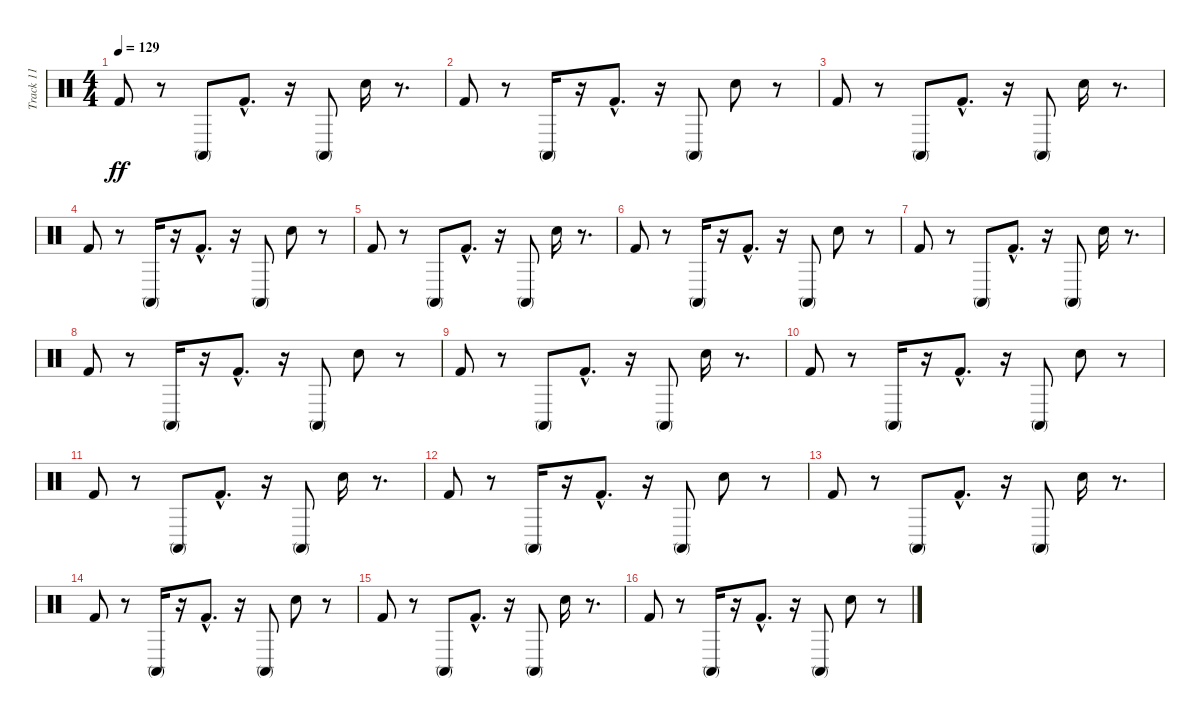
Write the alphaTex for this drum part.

\track ("Track 11" "Track 11") {instrument percussion}
\staff {score}
\articulation defaults
\ts (4 4)
\tempo 129
\clef neutral
\ks c "Kick (hit) 2".8{dy ff}
r.8 "Conga high (mute)".8 "Kick (hit) 2"{hac}.8{d} r.16 "Conga high (mute)".8 "Snare (hit) 2".16 r.8{d} |
"Kick (hit) 2".8 r.8 "Conga high (mute)".16 r.16 "Kick (hit) 2"{hac}.8{d} r.16 "Conga high (mute)".8 "Snare (hit) 2".8 r.8 |
"Kick (hit) 2".8 r.8 "Conga high (mute)".8 "Kick (hit) 2"{hac}.8{d} r.16 "Conga high (mute)".8 "Snare (hit) 2".16 r.8{d} |
"Kick (hit) 2".8 r.8 "Conga high (mute)".16 r.16 "Kick (hit) 2"{hac}.8{d} r.16 "Conga high (mute)".8 "Snare (hit) 2".8 r.8 |
"Kick (hit) 2".8 r.8 "Conga high (mute)".8 "Kick (hit) 2"{hac}.8{d} r.16 "Conga high (mute)".8 "Snare (hit) 2".16 r.8{d} |
"Kick (hit) 2".8 r.8 "Conga high (mute)".16 r.16 "Kick (hit) 2"{hac}.8{d} r.16 "Conga high (mute)".8 "Snare (hit) 2".8 r.8 |
"Kick (hit) 2".8 r.8 "Conga high (mute)".8 "Kick (hit) 2"{hac}.8{d} r.16 "Conga high (mute)".8 "Snare (hit) 2".16 r.8{d} |
"Kick (hit) 2".8 r.8 "Conga high (mute)".16 r.16 "Kick (hit) 2"{hac}.8{d} r.16 "Conga high (mute)".8 "Snare (hit) 2".8 r.8 |
"Kick (hit) 2".8 r.8 "Conga high (mute)".8 "Kick (hit) 2"{hac}.8{d} r.16 "Conga high (mute)".8 "Snare (hit) 2".16 r.8{d} |
"Kick (hit) 2".8 r.8 "Conga high (mute)".16 r.16 "Kick (hit) 2"{hac}.8{d} r.16 "Conga high (mute)".8 "Snare (hit) 2".8 r.8 |
"Kick (hit) 2".8 r.8 "Conga high (mute)".8 "Kick (hit) 2"{hac}.8{d} r.16 "Conga high (mute)".8 "Snare (hit) 2".16 r.8{d} |
"Kick (hit) 2".8 r.8 "Conga high (mute)".16 r.16 "Kick (hit) 2"{hac}.8{d} r.16 "Conga high (mute)".8 "Snare (hit) 2".8 r.8 |
"Kick (hit) 2".8 r.8 "Conga high (mute)".8 "Kick (hit) 2"{hac}.8{d} r.16 "Conga high (mute)".8 "Snare (hit) 2".16 r.8{d} |
"Kick (hit) 2".8 r.8 "Conga high (mute)".16 r.16 "Kick (hit) 2"{hac}.8{d} r.16 "Conga high (mute)".8 "Snare (hit) 2".8 r.8 |
"Kick (hit) 2".8 r.8 "Conga high (mute)".8 "Kick (hit) 2"{hac}.8{d} r.16 "Conga high (mute)".8 "Snare (hit) 2".16 r.8{d} |
"Kick (hit) 2".8 r.8 "Conga high (mute)".16 r.16 "Kick (hit) 2"{hac}.8{d} r.16 "Conga high (mute)".8 "Snare (hit) 2".8 r.8
